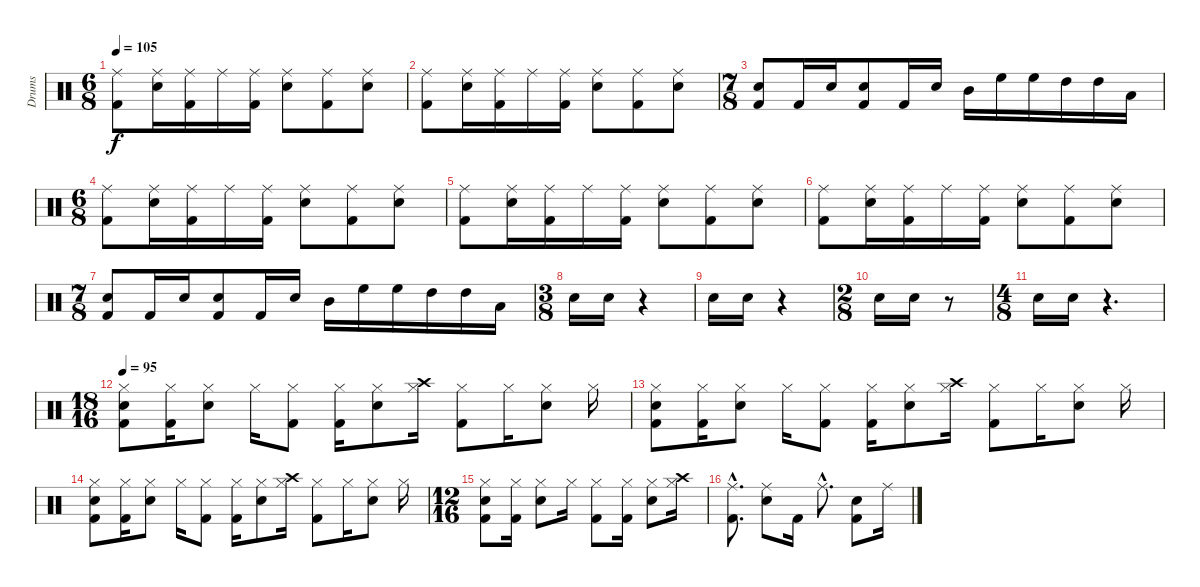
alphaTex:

\track ("Drums" "Drums") {instrument percussion}
\staff {score}
\articulation defaults
\ts (6 8)
\tempo 105
\clef neutral
\ks c
("Ride (middle)" "Kick (hit) 2").8{dy f} ("Ride (middle)" "Snare (hit) 2").16 ("Ride (middle)" "Kick (hit) 2").16 "Ride (middle)".16 ("Ride (middle)" "Kick (hit) 2").16 ("Ride (middle)" "Snare (hit) 2").8 ("Ride (middle)" "Kick (hit) 2").8 ("Ride (middle)" "Snare (hit) 2").8 |
("Ride (middle)" "Kick (hit) 2").8 ("Ride (middle)" "Snare (hit) 2").16 ("Ride (middle)" "Kick (hit) 2").16 "Ride (middle)".16 ("Ride (middle)" "Kick (hit) 2").16 ("Ride (middle)" "Snare (hit) 2").8 ("Ride (middle)" "Kick (hit) 2").8 ("Ride (middle)" "Snare (hit) 2").8 |
\ts (7 8)
("Snare (hit) 2" "Kick (hit) 2").8 "Kick (hit) 2".16 "Snare (hit) 2".16 ("Kick (hit) 2" "Snare (hit) 2").8 "Kick (hit) 2".16 "Snare (hit) 2".16 "Mid Tom (hit)".16 "High Floor Tom (hit)".16 "High Floor Tom (hit)".16 "High Tom (hit)".16 "High Tom (hit)".16 "Low Tom (hit)".16 |
\ts (6 8)
("Ride (middle)" "Kick (hit) 2").8 ("Ride (middle)" "Snare (hit) 2").16 ("Ride (middle)" "Kick (hit) 2").16 "Ride (middle)".16 ("Ride (middle)" "Kick (hit) 2").16 ("Ride (middle)" "Snare (hit) 2").8 ("Ride (middle)" "Kick (hit) 2").8 ("Ride (middle)" "Snare (hit) 2").8 |
("Ride (middle)" "Kick (hit) 2").8 ("Ride (middle)" "Snare (hit) 2").16 ("Ride (middle)" "Kick (hit) 2").16 "Ride (middle)".16 ("Ride (middle)" "Kick (hit) 2").16 ("Ride (middle)" "Snare (hit) 2").8 ("Ride (middle)" "Kick (hit) 2").8 ("Ride (middle)" "Snare (hit) 2").8 |
("Ride (middle)" "Kick (hit) 2").8 ("Ride (middle)" "Snare (hit) 2").16 ("Ride (middle)" "Kick (hit) 2").16 "Ride (middle)".16 ("Ride (middle)" "Kick (hit) 2").16 ("Ride (middle)" "Snare (hit) 2").8 ("Ride (middle)" "Kick (hit) 2").8 ("Ride (middle)" "Snare (hit) 2").8 |
\ts (7 8)
("Snare (hit) 2" "Kick (hit) 2").8 "Kick (hit) 2".16 "Snare (hit) 2".16 ("Kick (hit) 2" "Snare (hit) 2").8 "Kick (hit) 2".16 "Snare (hit) 2".16 "Mid Tom (hit)".16 "High Floor Tom (hit)".16 "High Floor Tom (hit)".16 "High Tom (hit)".16 "High Tom (hit)".16 "Low Tom (hit)".16 |
\ts (3 8)
"Snare (hit) 2".16 "Snare (hit) 2".16 r.4 |
"Snare (hit) 2".16 "Snare (hit) 2".16 r.4 |
\ts (2 8)
"Snare (hit) 2".16 "Snare (hit) 2".16 r.8 |
\ts (4 8)
"Snare (hit) 2".16 "Snare (hit) 2".16 r.4{d} |
\ts (18 16)
\tempo 95
("Hi-Hat (closed)" "Snare (hit) 2" "Kick (hit) 2").8 ("Hi-Hat (closed)" "Kick (hit) 2").16 ("Hi-Hat (closed)" "Snare (hit) 2").8 "Hi-Hat (closed)".16 ("Hi-Hat (closed)" "Kick (hit) 2").8 ("Hi-Hat (closed)" "Kick (hit) 2").16 ("Hi-Hat (closed)" "Snare (hit) 2").8 ("Crash high (hit)" "Hi-Hat (closed)").16 ("Hi-Hat (closed)" "Kick (hit) 2").8 "Hi-Hat (closed)".16 ("Hi-Hat (closed)" "Snare (hit) 2").8 "Hi-Hat (closed)".16 |
("Hi-Hat (closed)" "Snare (hit) 2" "Kick (hit) 2").8 ("Hi-Hat (closed)" "Kick (hit) 2").16 ("Hi-Hat (closed)" "Snare (hit) 2").8 "Hi-Hat (closed)".16 ("Hi-Hat (closed)" "Kick (hit) 2").8 ("Hi-Hat (closed)" "Kick (hit) 2").16 ("Hi-Hat (closed)" "Snare (hit) 2").8 ("Crash high (hit)" "Hi-Hat (closed)").16 ("Hi-Hat (closed)" "Kick (hit) 2").8 "Hi-Hat (closed)".16 ("Hi-Hat (closed)" "Snare (hit) 2").8 "Hi-Hat (closed)".16 |
("Hi-Hat (closed)" "Snare (hit) 2" "Kick (hit) 2").8 ("Hi-Hat (closed)" "Kick (hit) 2").16 ("Hi-Hat (closed)" "Snare (hit) 2").8 "Hi-Hat (closed)".16 ("Hi-Hat (closed)" "Kick (hit) 2").8 ("Hi-Hat (closed)" "Kick (hit) 2").16 ("Hi-Hat (closed)" "Snare (hit) 2").8 ("Crash high (hit)" "Hi-Hat (closed)").16 ("Hi-Hat (closed)" "Kick (hit) 2").8 "Hi-Hat (closed)".16 ("Hi-Hat (closed)" "Snare (hit) 2").8 "Hi-Hat (closed)".16 |
\ts (12 16)
("Hi-Hat (closed)" "Snare (hit) 2" "Kick (hit) 2").8 ("Hi-Hat (closed)" "Kick (hit) 2").16 ("Hi-Hat (closed)" "Snare (hit) 2").8 "Hi-Hat (closed)".16 ("Hi-Hat (closed)" "Kick (hit) 2").8 ("Hi-Hat (closed)" "Kick (hit) 2").16 ("Hi-Hat (closed)" "Snare (hit) 2").8 ("Crash high (hit)" "Hi-Hat (closed)").16 |
("Kick (hit) 2"{hac} "Ride (middle)"{hac}).8{d} ("Snare (hit) 2" "Ride (middle)").8 "Kick (hit) 2".16 "Ride (middle)"{hac}.8{d} ("Kick (hit) 2" "Snare (hit) 2").8 "Ride (middle)".16
